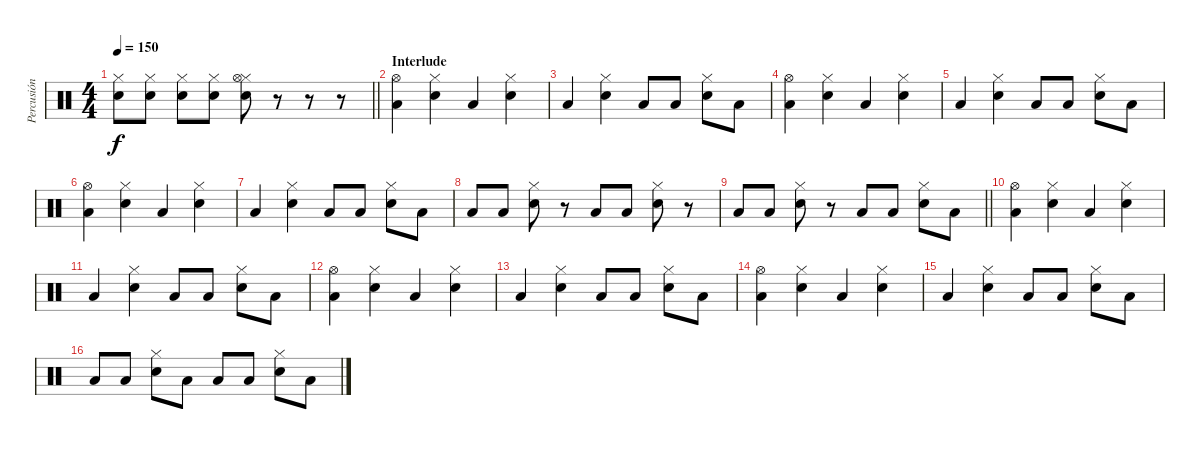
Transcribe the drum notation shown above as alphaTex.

\track ("Percusión" "Percusión") {instrument percussion}
\staff {score}
\articulation defaults
\ts (4 4)
\tempo 150
\clef neutral
\barLineRight lightlight
\ks c
("Electric Snare (hit)" "Hi-Hat (closed)").8{dy f} ("Electric Snare (hit)" "Hi-Hat (closed)").8 ("Electric Snare (hit)" "Hi-Hat (closed)").8 ("Electric Snare (hit)" "Hi-Hat (closed)").8 ("Electric Snare (hit)" "Hi-Hat (closed)" "Hi-Hat (open)").8 r.8 r.8 r.8 |
\section ("" "Interlude")
("Low Floor Tom (hit)" "Hi-Hat (open)").4 ("Electric Snare (hit)" "Hi-Hat (closed)").4 "Low Floor Tom (hit)".4 ("Electric Snare (hit)" "Hi-Hat (closed)").4 |
"Low Floor Tom (hit)".4 ("Electric Snare (hit)" "Hi-Hat (closed)").4 "Low Floor Tom (hit)".8 "Low Floor Tom (hit)".8 ("Electric Snare (hit)" "Hi-Hat (closed)").8 "Low Floor Tom (hit)".8 |
("Low Floor Tom (hit)" "Hi-Hat (open)").4 ("Electric Snare (hit)" "Hi-Hat (closed)").4 "Low Floor Tom (hit)".4 ("Electric Snare (hit)" "Hi-Hat (closed)").4 |
"Low Floor Tom (hit)".4 ("Electric Snare (hit)" "Hi-Hat (closed)").4 "Low Floor Tom (hit)".8 "Low Floor Tom (hit)".8 ("Electric Snare (hit)" "Hi-Hat (closed)").8 "Low Floor Tom (hit)".8 |
("Low Floor Tom (hit)" "Hi-Hat (open)").4 ("Electric Snare (hit)" "Hi-Hat (closed)").4 "Low Floor Tom (hit)".4 ("Electric Snare (hit)" "Hi-Hat (closed)").4 |
"Low Floor Tom (hit)".4 ("Electric Snare (hit)" "Hi-Hat (closed)").4 "Low Floor Tom (hit)".8 "Low Floor Tom (hit)".8 ("Electric Snare (hit)" "Hi-Hat (closed)").8 "Low Floor Tom (hit)".8 |
"Low Floor Tom (hit)".8 "Low Floor Tom (hit)".8 ("Electric Snare (hit)" "Hi-Hat (closed)").8 r.8 "Low Floor Tom (hit)".8 "Low Floor Tom (hit)".8 ("Electric Snare (hit)" "Hi-Hat (closed)").8 r.8 |
\barLineRight lightlight "Low Floor Tom (hit)".8 "Low Floor Tom (hit)".8
("Electric Snare (hit)" "Hi-Hat (closed)").8 r.8 "Low Floor Tom (hit)".8 "Low Floor Tom (hit)".8 ("Electric Snare (hit)" "Hi-Hat (closed)").8 "Low Floor Tom (hit)".8 |
("Low Floor Tom (hit)" "Hi-Hat (open)").4 ("Electric Snare (hit)" "Hi-Hat (closed)").4 "Low Floor Tom (hit)".4 ("Electric Snare (hit)" "Hi-Hat (closed)").4 |
"Low Floor Tom (hit)".4 ("Electric Snare (hit)" "Hi-Hat (closed)").4 "Low Floor Tom (hit)".8 "Low Floor Tom (hit)".8 ("Electric Snare (hit)" "Hi-Hat (closed)").8 "Low Floor Tom (hit)".8 |
("Low Floor Tom (hit)" "Hi-Hat (open)").4 ("Electric Snare (hit)" "Hi-Hat (closed)").4 "Low Floor Tom (hit)".4 ("Electric Snare (hit)" "Hi-Hat (closed)").4 |
"Low Floor Tom (hit)".4 ("Electric Snare (hit)" "Hi-Hat (closed)").4 "Low Floor Tom (hit)".8 "Low Floor Tom (hit)".8 ("Electric Snare (hit)" "Hi-Hat (closed)").8 "Low Floor Tom (hit)".8 |
("Low Floor Tom (hit)" "Hi-Hat (open)").4 ("Electric Snare (hit)" "Hi-Hat (closed)").4 "Low Floor Tom (hit)".4 ("Electric Snare (hit)" "Hi-Hat (closed)").4 |
"Low Floor Tom (hit)".4 ("Electric Snare (hit)" "Hi-Hat (closed)").4 "Low Floor Tom (hit)".8 "Low Floor Tom (hit)".8 ("Electric Snare (hit)" "Hi-Hat (closed)").8 "Low Floor Tom (hit)".8 |
"Low Floor Tom (hit)".8 "Low Floor Tom (hit)".8 ("Electric Snare (hit)" "Hi-Hat (closed)").8 "Low Floor Tom (hit)".8 "Low Floor Tom (hit)".8 "Low Floor Tom (hit)".8 ("Electric Snare (hit)" "Hi-Hat (closed)").8 "Low Floor Tom (hit)".8
